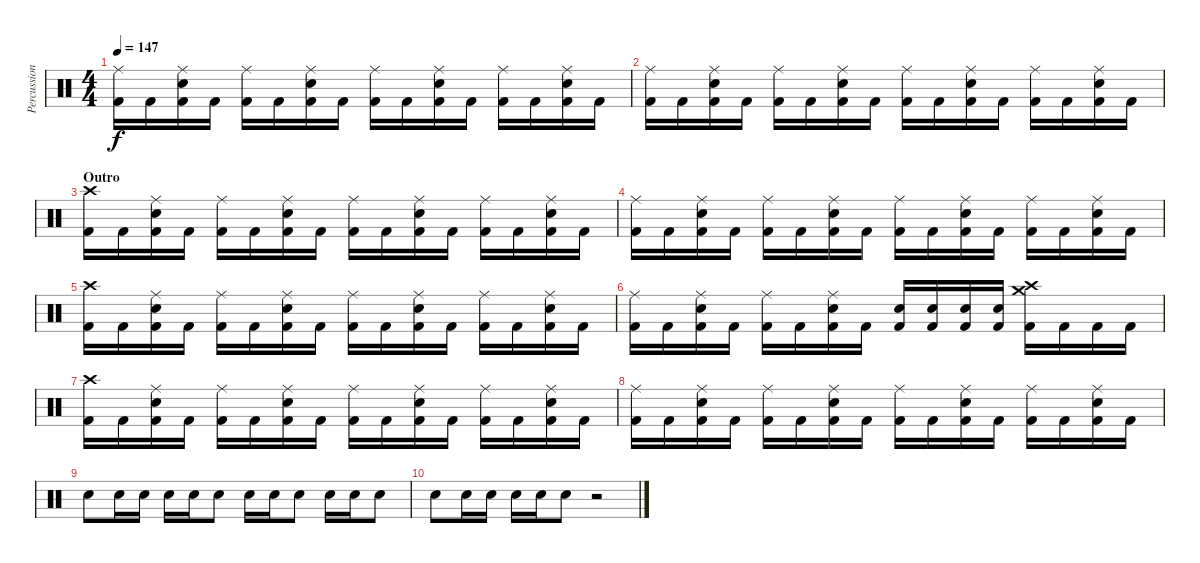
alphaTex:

\track ("Percussion" "Percussion") {instrument percussion}
\staff {score}
\articulation defaults
\ts (4 4)
\tempo 147
\clef neutral
\ks c
("Kick (hit) 2" "Ride (middle)").16{dy f} "Kick (hit) 2".16 ("Kick (hit) 2" "Snare (hit) 2" "Ride (middle)").16 "Kick (hit) 2".16 ("Kick (hit) 2" "Ride (middle)").16 "Kick (hit) 2".16 ("Kick (hit) 2" "Snare (hit) 2" "Ride (middle)").16 "Kick (hit) 2".16 ("Kick (hit) 2" "Ride (middle)").16 "Kick (hit) 2".16 ("Kick (hit) 2" "Snare (hit) 2" "Ride (middle)").16 "Kick (hit) 2".16 ("Kick (hit) 2" "Ride (middle)").16 "Kick (hit) 2".16 ("Kick (hit) 2" "Snare (hit) 2" "Ride (middle)").16 "Kick (hit) 2".16 |
("Kick (hit) 2" "Ride (middle)").16 "Kick (hit) 2".16 ("Kick (hit) 2" "Snare (hit) 2" "Ride (middle)").16 "Kick (hit) 2".16 ("Kick (hit) 2" "Ride (middle)").16 "Kick (hit) 2".16 ("Kick (hit) 2" "Snare (hit) 2" "Ride (middle)").16 "Kick (hit) 2".16 ("Kick (hit) 2" "Ride (middle)").16 "Kick (hit) 2".16 ("Kick (hit) 2" "Snare (hit) 2" "Ride (middle)").16 "Kick (hit) 2".16 ("Kick (hit) 2" "Ride (middle)").16 "Kick (hit) 2".16 ("Kick (hit) 2" "Snare (hit) 2" "Ride (middle)").16 "Kick (hit) 2".16 |
\section ("" "Outro")
("Kick (hit) 2" "Crash high (hit)").16 "Kick (hit) 2".16 ("Kick (hit) 2" "Snare (hit) 2" "Ride (middle)").16 "Kick (hit) 2".16 ("Kick (hit) 2" "Ride (middle)").16 "Kick (hit) 2".16 ("Kick (hit) 2" "Snare (hit) 2" "Ride (middle)").16 "Kick (hit) 2".16 ("Kick (hit) 2" "Ride (middle)").16 "Kick (hit) 2".16 ("Kick (hit) 2" "Snare (hit) 2" "Ride (middle)").16 "Kick (hit) 2".16 ("Kick (hit) 2" "Ride (middle)").16 "Kick (hit) 2".16 ("Kick (hit) 2" "Snare (hit) 2" "Ride (middle)").16 "Kick (hit) 2".16 |
("Kick (hit) 2" "Ride (middle)").16 "Kick (hit) 2".16 ("Kick (hit) 2" "Snare (hit) 2" "Ride (middle)").16 "Kick (hit) 2".16 ("Kick (hit) 2" "Ride (middle)").16 "Kick (hit) 2".16 ("Kick (hit) 2" "Snare (hit) 2" "Ride (middle)").16 "Kick (hit) 2".16 ("Kick (hit) 2" "Ride (middle)").16 "Kick (hit) 2".16 ("Kick (hit) 2" "Snare (hit) 2" "Ride (middle)").16 "Kick (hit) 2".16 ("Kick (hit) 2" "Ride (middle)").16 "Kick (hit) 2".16 ("Kick (hit) 2" "Snare (hit) 2" "Ride (middle)").16 "Kick (hit) 2".16 |
("Kick (hit) 2" "Crash high (hit)").16 "Kick (hit) 2".16 ("Kick (hit) 2" "Snare (hit) 2" "Ride (middle)").16 "Kick (hit) 2".16 ("Kick (hit) 2" "Ride (middle)").16 "Kick (hit) 2".16 ("Kick (hit) 2" "Snare (hit) 2" "Ride (middle)").16 "Kick (hit) 2".16 ("Kick (hit) 2" "Ride (middle)").16 "Kick (hit) 2".16 ("Kick (hit) 2" "Snare (hit) 2" "Ride (middle)").16 "Kick (hit) 2".16 ("Kick (hit) 2" "Ride (middle)").16 "Kick (hit) 2".16 ("Kick (hit) 2" "Snare (hit) 2" "Ride (middle)").16 "Kick (hit) 2".16 |
("Kick (hit) 2" "Ride (middle)").16 "Kick (hit) 2".16 ("Kick (hit) 2" "Snare (hit) 2" "Ride (middle)").16 "Kick (hit) 2".16 ("Kick (hit) 2" "Ride (middle)").16 "Kick (hit) 2".16 ("Kick (hit) 2" "Snare (hit) 2" "Ride (middle)").16 "Kick (hit) 2".16 ("Kick (hit) 2" "Snare (hit) 2").16 ("Kick (hit) 2" "Snare (hit) 2").16 ("Kick (hit) 2" "Snare (hit) 2").16 ("Kick (hit) 2" "Snare (hit) 2").16 ("Kick (hit) 2" "Crash high (hit)" "Crash medium (hit)").16 "Kick (hit) 2".16 "Kick (hit) 2".16 "Kick (hit) 2".16 |
("Kick (hit) 2" "Crash high (hit)").16 "Kick (hit) 2".16 ("Kick (hit) 2" "Snare (hit) 2" "Ride (middle)").16 "Kick (hit) 2".16 ("Kick (hit) 2" "Ride (middle)").16 "Kick (hit) 2".16 ("Kick (hit) 2" "Snare (hit) 2" "Ride (middle)").16 "Kick (hit) 2".16 ("Kick (hit) 2" "Ride (middle)").16 "Kick (hit) 2".16 ("Kick (hit) 2" "Snare (hit) 2" "Ride (middle)").16 "Kick (hit) 2".16 ("Kick (hit) 2" "Ride (middle)").16 "Kick (hit) 2".16 ("Kick (hit) 2" "Snare (hit) 2" "Ride (middle)").16 "Kick (hit) 2".16 |
("Kick (hit) 2" "Ride (middle)").16 "Kick (hit) 2".16 ("Kick (hit) 2" "Snare (hit) 2" "Ride (middle)").16 "Kick (hit) 2".16 ("Kick (hit) 2" "Ride (middle)").16 "Kick (hit) 2".16 ("Kick (hit) 2" "Snare (hit) 2" "Ride (middle)").16 "Kick (hit) 2".16 ("Kick (hit) 2" "Ride (middle)").16 "Kick (hit) 2".16 ("Kick (hit) 2" "Snare (hit) 2" "Ride (middle)").16 "Kick (hit) 2".16 ("Kick (hit) 2" "Ride (middle)").16 "Kick (hit) 2".16 ("Kick (hit) 2" "Snare (hit) 2" "Ride (middle)").16 "Kick (hit) 2".16 |
"Snare (hit) 2".8 "Snare (hit) 2".16 "Snare (hit) 2".16 "Snare (hit) 2".16 "Snare (hit) 2".16 "Snare (hit) 2".8 "Snare (hit) 2".16 "Snare (hit) 2".16 "Snare (hit) 2".8 "Snare (hit) 2".16 "Snare (hit) 2".16 "Snare (hit) 2".8 |
"Snare (hit) 2".8 "Snare (hit) 2".16 "Snare (hit) 2".16 "Snare (hit) 2".16 "Snare (hit) 2".16 "Snare (hit) 2".8 r.2
